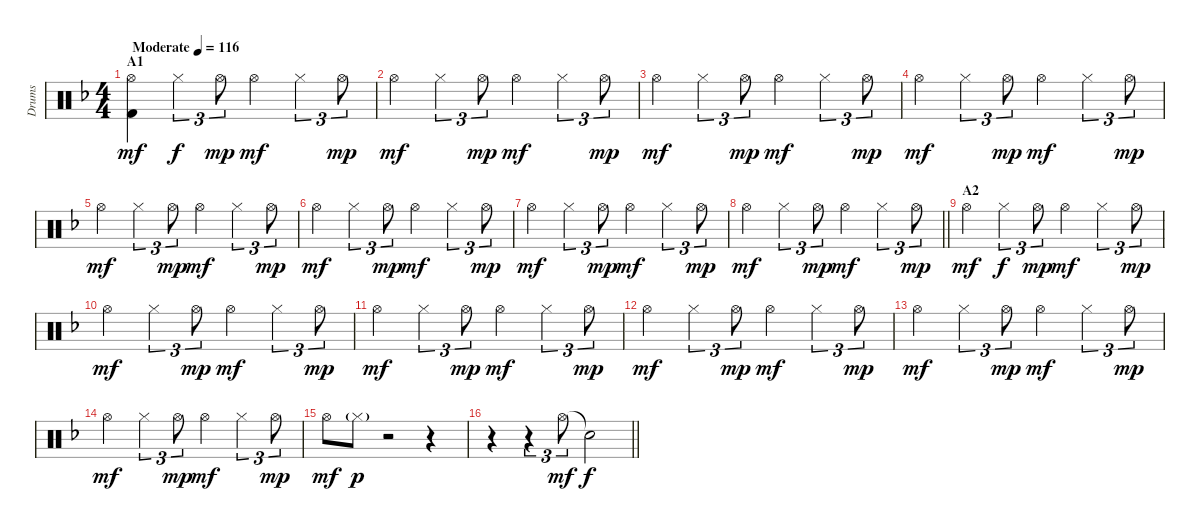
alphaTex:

\track ("Drums" "Drums") {instrument percussion}
\staff {score}
\articulation defaults
\ts (4 4)
\section ("" "A1")
\tempo (116 "Moderate")
\clef neutral
\ks f
("Hi-Hat (open)" "Kick (hit) 2").4{dy mf} "Hi-Hat (closed)".4{tu (3 2) dy f} "Hi-Hat (open)".8{tu (3 2) dy mp} "Hi-Hat (open)".4{dy mf} "Hi-Hat (closed)".4{tu (3 2)} "Hi-Hat (open)".8{tu (3 2) dy mp} |
"Hi-Hat (open)".4{dy mf} "Hi-Hat (closed)".4{tu (3 2)} "Hi-Hat (open)".8{tu (3 2) dy mp} "Hi-Hat (open)".4{dy mf} "Hi-Hat (closed)".4{tu (3 2)} "Hi-Hat (open)".8{tu (3 2) dy mp} |
"Hi-Hat (open)".4{dy mf} "Hi-Hat (closed)".4{tu (3 2)} "Hi-Hat (open)".8{tu (3 2) dy mp} "Hi-Hat (open)".4{dy mf} "Hi-Hat (closed)".4{tu (3 2)} "Hi-Hat (open)".8{tu (3 2) dy mp} |
"Hi-Hat (open)".4{dy mf} "Hi-Hat (closed)".4{tu (3 2)} "Hi-Hat (open)".8{tu (3 2) dy mp} "Hi-Hat (open)".4{dy mf} "Hi-Hat (closed)".4{tu (3 2)} "Hi-Hat (open)".8{tu (3 2) dy mp} |
"Hi-Hat (open)".4{dy mf} "Hi-Hat (closed)".4{tu (3 2)} "Hi-Hat (open)".8{tu (3 2) dy mp} "Hi-Hat (open)".4{dy mf} "Hi-Hat (closed)".4{tu (3 2)} "Hi-Hat (open)".8{tu (3 2) dy mp} |
"Hi-Hat (open)".4{dy mf} "Hi-Hat (closed)".4{tu (3 2)} "Hi-Hat (open)".8{tu (3 2) dy mp} "Hi-Hat (open)".4{dy mf} "Hi-Hat (closed)".4{tu (3 2)} "Hi-Hat (open)".8{tu (3 2) dy mp} |
"Hi-Hat (open)".4{dy mf} "Hi-Hat (closed)".4{tu (3 2)} "Hi-Hat (open)".8{tu (3 2) dy mp} "Hi-Hat (open)".4{dy mf} "Hi-Hat (closed)".4{tu (3 2)} "Hi-Hat (open)".8{tu (3 2) dy mp} |
\barLineRight lightlight "Hi-Hat (open)".4{dy mf} "Hi-Hat (closed)".4{tu (3 2)} "Hi-Hat (open)".8{tu (3 2) dy mp} "Hi-Hat (open)".4{dy mf} "Hi-Hat (closed)".4{tu (3 2)} "Hi-Hat (open)".8{tu (3 2) dy mp}
|
\section ("" "A2")
"Hi-Hat (open)".4{dy mf} "Hi-Hat (closed)".4{tu (3 2) dy f} "Hi-Hat (open)".8{tu (3 2) dy mp} "Hi-Hat (open)".4{dy mf} "Hi-Hat (closed)".4{tu (3 2)} "Hi-Hat (open)".8{tu (3 2) dy mp} |
"Hi-Hat (open)".4{dy mf} "Hi-Hat (closed)".4{tu (3 2)} "Hi-Hat (open)".8{tu (3 2) dy mp} "Hi-Hat (open)".4{dy mf} "Hi-Hat (closed)".4{tu (3 2)} "Hi-Hat (open)".8{tu (3 2) dy mp} |
"Hi-Hat (open)".4{dy mf} "Hi-Hat (closed)".4{tu (3 2)} "Hi-Hat (open)".8{tu (3 2) dy mp} "Hi-Hat (open)".4{dy mf} "Hi-Hat (closed)".4{tu (3 2)} "Hi-Hat (open)".8{tu (3 2) dy mp} |
"Hi-Hat (open)".4{dy mf} "Hi-Hat (closed)".4{tu (3 2)} "Hi-Hat (open)".8{tu (3 2) dy mp} "Hi-Hat (open)".4{dy mf} "Hi-Hat (closed)".4{tu (3 2)} "Hi-Hat (open)".8{tu (3 2) dy mp} |
"Hi-Hat (open)".4{dy mf} "Hi-Hat (closed)".4{tu (3 2)} "Hi-Hat (open)".8{tu (3 2) dy mp} "Hi-Hat (open)".4{dy mf} "Hi-Hat (closed)".4{tu (3 2)} "Hi-Hat (open)".8{tu (3 2) dy mp} |
"Hi-Hat (open)".4{dy mf} "Hi-Hat (closed)".4{tu (3 2)} "Hi-Hat (open)".8{tu (3 2) dy mp} "Hi-Hat (open)".4{dy mf} "Hi-Hat (closed)".4{tu (3 2)} "Hi-Hat (open)".8{tu (3 2) dy mp} |
"Hi-Hat (open)".8{dy mf} "Hi-Hat (closed)"{g}.8{dy p} r.2 r.4 |
\barLineRight lightlight
r.4 r.4{tu (3 2)} "Hi-Hat (open)".8{tu (3 2) dy mf} "Snare (hit)"{t}.2{dy f}
